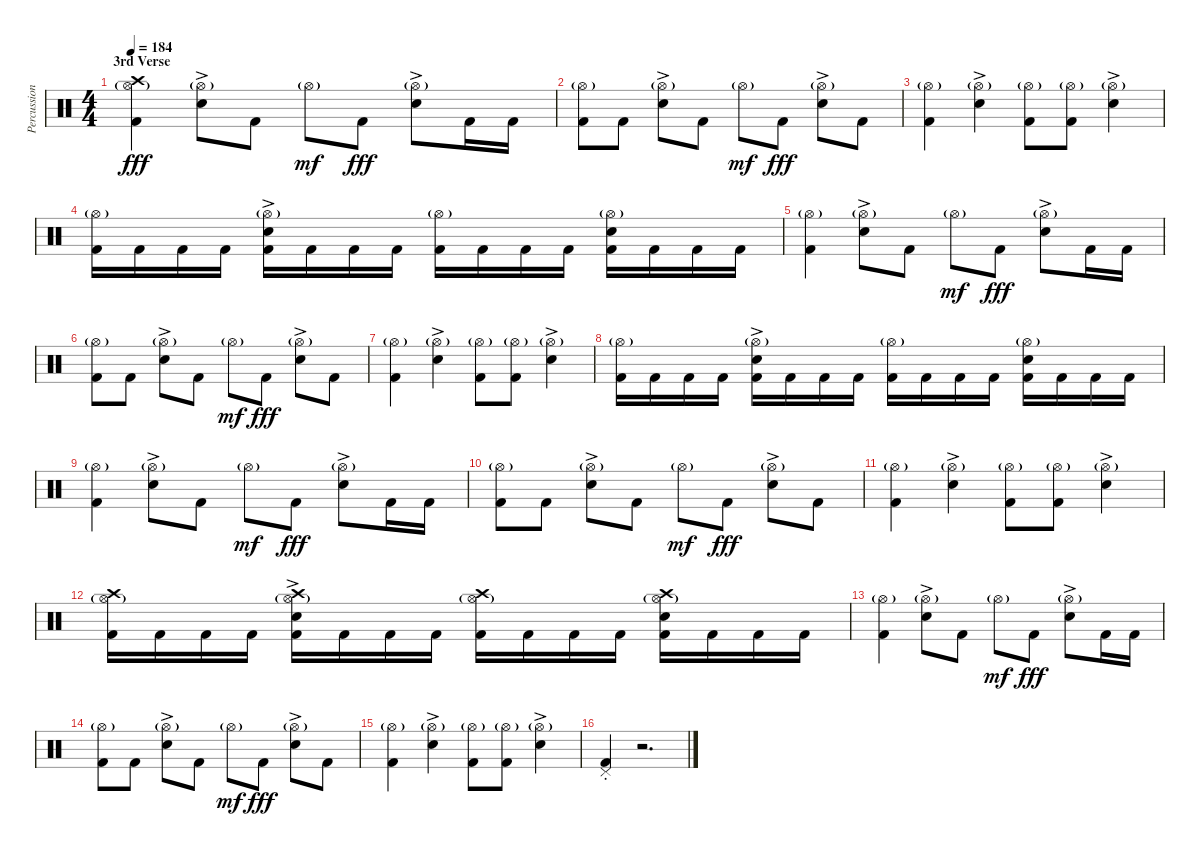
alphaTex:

\track ("Percussion , Drums - Travis Smith" "Percussion") {instrument percussion}
\staff {score}
\articulation defaults
\ts (4 4)
\section ("" "3rd Verse")
\tempo 184
\clef neutral
\ks c
("Hi-Hat (open)"{g} "Crash high (hit)" "Kick (hit) 2").4{dy fff} ("Hi-Hat (open)"{g} "Electric Snare (hit)"{ac}).8 "Kick (hit) 2".8 "Hi-Hat (open)"{g}.8{dy mf} "Kick (hit) 2".8{dy fff} ("Hi-Hat (open)"{g} "Electric Snare (hit)"{ac}).8 "Kick (hit) 2".16 "Kick (hit) 2".16 |
("Hi-Hat (open)"{g} "Kick (hit) 2").8 "Kick (hit) 2".8 ("Hi-Hat (open)"{g} "Electric Snare (hit)"{ac}).8 "Kick (hit) 2".8 "Hi-Hat (open)"{g}.8{dy mf} "Kick (hit) 2".8{dy fff} ("Hi-Hat (open)"{g} "Electric Snare (hit)"{ac}).8 "Kick (hit) 2".8 |
("Hi-Hat (open)"{g} "Kick (hit) 2").4 ("Hi-Hat (open)"{g} "Electric Snare (hit)"{ac}).4 ("Hi-Hat (open)"{g} "Kick (hit) 2").8 ("Hi-Hat (open)"{g} "Kick (hit) 2").8 ("Hi-Hat (open)"{g} "Electric Snare (hit)"{ac}).4 |
("Hi-Hat (open)"{g} "Kick (hit) 2").16 "Kick (hit) 2".16 "Kick (hit) 2".16 "Kick (hit) 2".16 ("Hi-Hat (open)"{g} "Electric Snare (hit)"{ac} "Kick (hit) 2").16 "Kick (hit) 2".16 "Kick (hit) 2".16 "Kick (hit) 2".16 ("Hi-Hat (open)"{g} "Kick (hit) 2").16 "Kick (hit) 2".16 "Kick (hit) 2".16 "Kick (hit) 2".16 ("Hi-Hat (open)"{g} "Electric Snare (hit)" "Kick (hit) 2").16 "Kick (hit) 2".16 "Kick (hit) 2".16 "Kick (hit) 2".16 |
("Hi-Hat (open)"{g} "Kick (hit) 2").4 ("Hi-Hat (open)"{g} "Electric Snare (hit)"{ac}).8 "Kick (hit) 2".8 "Hi-Hat (open)"{g}.8{dy mf} "Kick (hit) 2".8{dy fff} ("Hi-Hat (open)"{g} "Electric Snare (hit)"{ac}).8 "Kick (hit) 2".16 "Kick (hit) 2".16 |
("Hi-Hat (open)"{g} "Kick (hit) 2").8 "Kick (hit) 2".8 ("Hi-Hat (open)"{g} "Electric Snare (hit)"{ac}).8 "Kick (hit) 2".8 "Hi-Hat (open)"{g}.8{dy mf} "Kick (hit) 2".8{dy fff} ("Hi-Hat (open)"{g} "Electric Snare (hit)"{ac}).8 "Kick (hit) 2".8 |
("Hi-Hat (open)"{g} "Kick (hit) 2").4 ("Hi-Hat (open)"{g} "Electric Snare (hit)"{ac}).4 ("Hi-Hat (open)"{g} "Kick (hit) 2").8 ("Hi-Hat (open)"{g} "Kick (hit) 2").8 ("Hi-Hat (open)"{g} "Electric Snare (hit)"{ac}).4 |
("Hi-Hat (open)"{g} "Kick (hit) 2").16 "Kick (hit) 2".16 "Kick (hit) 2".16 "Kick (hit) 2".16 ("Hi-Hat (open)"{g} "Electric Snare (hit)"{ac} "Kick (hit) 2").16 "Kick (hit) 2".16 "Kick (hit) 2".16 "Kick (hit) 2".16 ("Hi-Hat (open)"{g} "Kick (hit) 2").16 "Kick (hit) 2".16 "Kick (hit) 2".16 "Kick (hit) 2".16 ("Hi-Hat (open)"{g} "Electric Snare (hit)" "Kick (hit) 2").16 "Kick (hit) 2".16 "Kick (hit) 2".16 "Kick (hit) 2".16 |
("Hi-Hat (open)"{g} "Kick (hit) 2").4 ("Hi-Hat (open)"{g} "Electric Snare (hit)"{ac}).8 "Kick (hit) 2".8 "Hi-Hat (open)"{g}.8{dy mf} "Kick (hit) 2".8{dy fff} ("Hi-Hat (open)"{g} "Electric Snare (hit)"{ac}).8 "Kick (hit) 2".16 "Kick (hit) 2".16 |
("Hi-Hat (open)"{g} "Kick (hit) 2").8 "Kick (hit) 2".8 ("Hi-Hat (open)"{g} "Electric Snare (hit)"{ac}).8 "Kick (hit) 2".8 "Hi-Hat (open)"{g}.8{dy mf} "Kick (hit) 2".8{dy fff} ("Hi-Hat (open)"{g} "Electric Snare (hit)"{ac}).8 "Kick (hit) 2".8 |
("Hi-Hat (open)"{g} "Kick (hit) 2").4 ("Hi-Hat (open)"{g} "Electric Snare (hit)"{ac}).4 ("Hi-Hat (open)"{g} "Kick (hit) 2").8 ("Hi-Hat (open)"{g} "Kick (hit) 2").8 ("Hi-Hat (open)"{g} "Electric Snare (hit)"{ac}).4 |
("Hi-Hat (open)"{g} "Crash high (hit)" "Kick (hit) 2").16 "Kick (hit) 2".16 "Kick (hit) 2".16 "Kick (hit) 2".16 ("Hi-Hat (open)"{g} "Crash high (hit)" "Electric Snare (hit)"{ac} "Kick (hit) 2").16 "Kick (hit) 2".16 "Kick (hit) 2".16 "Kick (hit) 2".16 ("Hi-Hat (open)"{g} "Crash high (hit)" "Kick (hit) 2").16 "Kick (hit) 2".16 "Kick (hit) 2".16 "Kick (hit) 2".16 ("Hi-Hat (open)"{g} "Crash high (hit)" "Electric Snare (hit)" "Kick (hit) 2").16 "Kick (hit) 2".16 "Kick (hit) 2".16 "Kick (hit) 2".16 |
("Hi-Hat (open)"{g} "Kick (hit) 2").4 ("Hi-Hat (open)"{g} "Electric Snare (hit)"{ac}).8 "Kick (hit) 2".8 "Hi-Hat (open)"{g}.8{dy mf} "Kick (hit) 2".8{dy fff} ("Hi-Hat (open)"{g} "Electric Snare (hit)"{ac}).8 "Kick (hit) 2".16 "Kick (hit) 2".16 |
("Hi-Hat (open)"{g} "Kick (hit) 2").8 "Kick (hit) 2".8 ("Hi-Hat (open)"{g} "Electric Snare (hit)"{ac}).8 "Kick (hit) 2".8 "Hi-Hat (open)"{g}.8{dy mf} "Kick (hit) 2".8{dy fff} ("Hi-Hat (open)"{g} "Electric Snare (hit)"{ac}).8 "Kick (hit) 2".8 |
("Hi-Hat (open)"{g} "Kick (hit) 2").4 ("Hi-Hat (open)"{g} "Electric Snare (hit)"{ac}).4 ("Hi-Hat (open)"{g} "Kick (hit) 2").8 ("Hi-Hat (open)"{g} "Kick (hit) 2").8 ("Hi-Hat (open)"{g} "Electric Snare (hit)"{ac}).4 |
("Pedal Hi-Hat (hit)"{st} "Kick (hit) 2"{st}).4 r.2{d}
